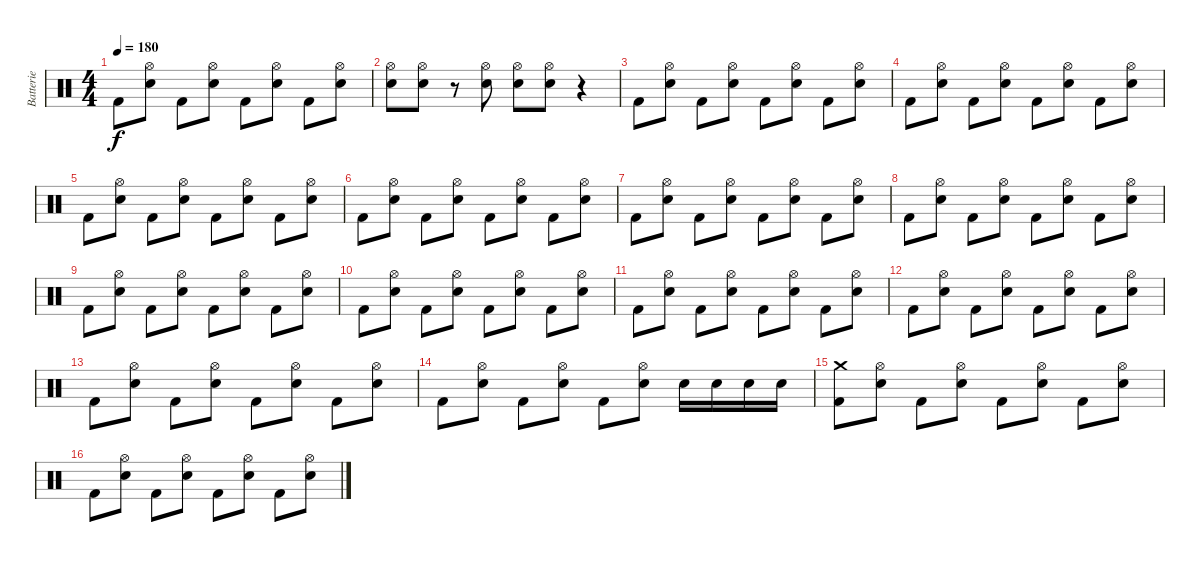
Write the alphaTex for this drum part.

\track ("Batterie" "Batterie") {instrument percussion}
\staff {score}
\articulation defaults
\ts (4 4)
\tempo 180
\clef neutral
\ks c "Kick (hit) 2".8{dy f}
("Electric Snare (hit)" "Hi-Hat (open)").8 "Kick (hit) 2".8 ("Electric Snare (hit)" "Hi-Hat (open)").8 "Kick (hit) 2".8 ("Electric Snare (hit)" "Hi-Hat (open)").8 "Kick (hit) 2".8 ("Electric Snare (hit)" "Hi-Hat (open)").8 |
("Electric Snare (hit)" "Hi-Hat (open)").8 ("Electric Snare (hit)" "Hi-Hat (open)").8 r.8 ("Electric Snare (hit)" "Hi-Hat (open)").8 ("Electric Snare (hit)" "Hi-Hat (open)").8 ("Electric Snare (hit)" "Hi-Hat (open)").8 r.4 |
"Kick (hit) 2".8 ("Electric Snare (hit)" "Hi-Hat (open)").8 "Kick (hit) 2".8 ("Electric Snare (hit)" "Hi-Hat (open)").8 "Kick (hit) 2".8 ("Electric Snare (hit)" "Hi-Hat (open)").8 "Kick (hit) 2".8 ("Electric Snare (hit)" "Hi-Hat (open)").8 |
"Kick (hit) 2".8 ("Electric Snare (hit)" "Hi-Hat (open)").8 "Kick (hit) 2".8 ("Electric Snare (hit)" "Hi-Hat (open)").8 "Kick (hit) 2".8 ("Electric Snare (hit)" "Hi-Hat (open)").8 "Kick (hit) 2".8 ("Electric Snare (hit)" "Hi-Hat (open)").8 |
"Kick (hit) 2".8 ("Electric Snare (hit)" "Hi-Hat (open)").8 "Kick (hit) 2".8 ("Electric Snare (hit)" "Hi-Hat (open)").8 "Kick (hit) 2".8 ("Electric Snare (hit)" "Hi-Hat (open)").8 "Kick (hit) 2".8 ("Electric Snare (hit)" "Hi-Hat (open)").8 |
"Kick (hit) 2".8 ("Electric Snare (hit)" "Hi-Hat (open)").8 "Kick (hit) 2".8 ("Electric Snare (hit)" "Hi-Hat (open)").8 "Kick (hit) 2".8 ("Electric Snare (hit)" "Hi-Hat (open)").8 "Kick (hit) 2".8 ("Electric Snare (hit)" "Hi-Hat (open)").8 |
"Kick (hit) 2".8 ("Electric Snare (hit)" "Hi-Hat (open)").8 "Kick (hit) 2".8 ("Electric Snare (hit)" "Hi-Hat (open)").8 "Kick (hit) 2".8 ("Electric Snare (hit)" "Hi-Hat (open)").8 "Kick (hit) 2".8 ("Electric Snare (hit)" "Hi-Hat (open)").8 |
"Kick (hit) 2".8 ("Electric Snare (hit)" "Hi-Hat (open)").8 "Kick (hit) 2".8 ("Electric Snare (hit)" "Hi-Hat (open)").8 "Kick (hit) 2".8 ("Electric Snare (hit)" "Hi-Hat (open)").8 "Kick (hit) 2".8 ("Electric Snare (hit)" "Hi-Hat (open)").8 |
"Kick (hit) 2".8 ("Electric Snare (hit)" "Hi-Hat (open)").8 "Kick (hit) 2".8 ("Electric Snare (hit)" "Hi-Hat (open)").8 "Kick (hit) 2".8 ("Electric Snare (hit)" "Hi-Hat (open)").8 "Kick (hit) 2".8 ("Electric Snare (hit)" "Hi-Hat (open)").8 |
"Kick (hit) 2".8 ("Electric Snare (hit)" "Hi-Hat (open)").8 "Kick (hit) 2".8 ("Electric Snare (hit)" "Hi-Hat (open)").8 "Kick (hit) 2".8 ("Electric Snare (hit)" "Hi-Hat (open)").8 "Kick (hit) 2".8 ("Electric Snare (hit)" "Hi-Hat (open)").8 |
"Kick (hit) 2".8 ("Electric Snare (hit)" "Hi-Hat (open)").8 "Kick (hit) 2".8 ("Electric Snare (hit)" "Hi-Hat (open)").8 "Kick (hit) 2".8 ("Electric Snare (hit)" "Hi-Hat (open)").8 "Kick (hit) 2".8 ("Electric Snare (hit)" "Hi-Hat (open)").8 |
"Kick (hit) 2".8 ("Electric Snare (hit)" "Hi-Hat (open)").8 "Kick (hit) 2".8 ("Electric Snare (hit)" "Hi-Hat (open)").8 "Kick (hit) 2".8 ("Electric Snare (hit)" "Hi-Hat (open)").8 "Kick (hit) 2".8 ("Electric Snare (hit)" "Hi-Hat (open)").8 |
"Kick (hit) 2".8 ("Electric Snare (hit)" "Hi-Hat (open)").8 "Kick (hit) 2".8 ("Electric Snare (hit)" "Hi-Hat (open)").8 "Kick (hit) 2".8 ("Electric Snare (hit)" "Hi-Hat (open)").8 "Kick (hit) 2".8 ("Electric Snare (hit)" "Hi-Hat (open)").8 |
"Kick (hit) 2".8 ("Electric Snare (hit)" "Hi-Hat (open)").8 "Kick (hit) 2".8 ("Electric Snare (hit)" "Hi-Hat (open)").8 "Kick (hit) 2".8 ("Electric Snare (hit)" "Hi-Hat (open)").8 "Electric Snare (hit)".16 "Electric Snare (hit)".16 "Electric Snare (hit)".16 "Electric Snare (hit)".16 |
("Kick (hit) 2" "Crash medium (hit)").8 ("Electric Snare (hit)" "Hi-Hat (open)").8 "Kick (hit) 2".8 ("Electric Snare (hit)" "Hi-Hat (open)").8 "Kick (hit) 2".8 ("Electric Snare (hit)" "Hi-Hat (open)").8 "Kick (hit) 2".8 ("Electric Snare (hit)" "Hi-Hat (open)").8 |
"Kick (hit) 2".8 ("Electric Snare (hit)" "Hi-Hat (open)").8 "Kick (hit) 2".8 ("Electric Snare (hit)" "Hi-Hat (open)").8 "Kick (hit) 2".8 ("Electric Snare (hit)" "Hi-Hat (open)").8 "Kick (hit) 2".8 ("Electric Snare (hit)" "Hi-Hat (open)").8
